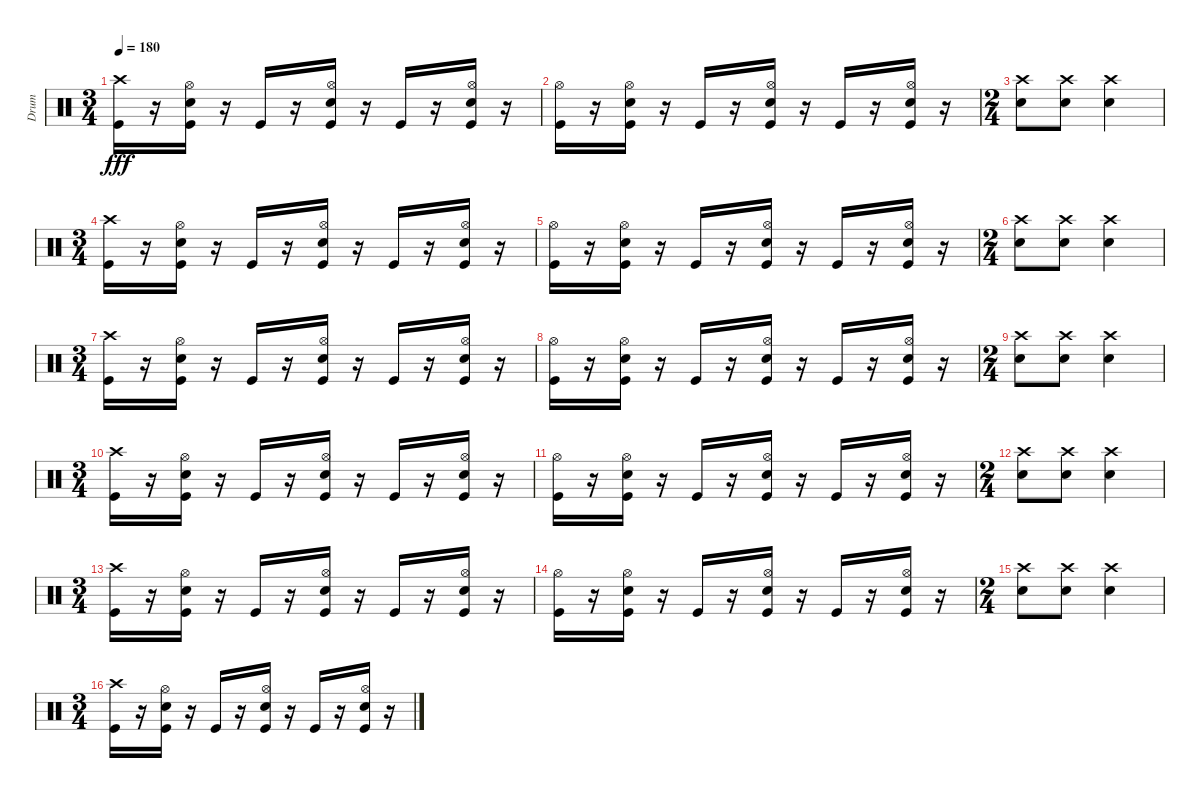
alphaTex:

\track ("Drum" "Drum") {instrument percussion}
\staff {score}
\articulation defaults
\ts (3 4)
\tempo 180
\clef neutral
\ks c
("Crash high (hit)" "Kick (hit)").16{dy fff} r.16 ("Hi-Hat (open)" "Snare (hit) 2" "Kick (hit)").16 r.16 "Kick (hit)".16 r.16 ("Hi-Hat (open)" "Snare (hit) 2" "Kick (hit)").16 r.16 "Kick (hit)".16 r.16 ("Hi-Hat (open)" "Snare (hit) 2" "Kick (hit)").16 r.16 |
("Hi-Hat (open)" "Kick (hit)").16 r.16 ("Hi-Hat (open)" "Snare (hit) 2" "Kick (hit)").16 r.16 "Kick (hit)".16 r.16 ("Hi-Hat (open)" "Snare (hit) 2" "Kick (hit)").16 r.16 "Kick (hit)".16 r.16 ("Hi-Hat (open)" "Snare (hit) 2" "Kick (hit)").16 r.16 |
\ts (2 4)
("Crash high (hit)" "Snare (hit) 2").8 ("Crash high (hit)" "Snare (hit) 2").8 ("Crash high (hit)" "Snare (hit) 2").4 |
\ts (3 4)
("Crash high (hit)" "Kick (hit)").16 r.16 ("Hi-Hat (open)" "Snare (hit) 2" "Kick (hit)").16 r.16 "Kick (hit)".16 r.16 ("Hi-Hat (open)" "Snare (hit) 2" "Kick (hit)").16 r.16 "Kick (hit)".16 r.16 ("Hi-Hat (open)" "Snare (hit) 2" "Kick (hit)").16 r.16 |
("Hi-Hat (open)" "Kick (hit)").16 r.16 ("Hi-Hat (open)" "Snare (hit) 2" "Kick (hit)").16 r.16 "Kick (hit)".16 r.16 ("Hi-Hat (open)" "Snare (hit) 2" "Kick (hit)").16 r.16 "Kick (hit)".16 r.16 ("Hi-Hat (open)" "Snare (hit) 2" "Kick (hit)").16 r.16 |
\ts (2 4)
("Crash high (hit)" "Snare (hit) 2").8 ("Crash high (hit)" "Snare (hit) 2").8 ("Crash high (hit)" "Snare (hit) 2").4 |
\ts (3 4)
("Crash high (hit)" "Kick (hit)").16 r.16 ("Hi-Hat (open)" "Snare (hit) 2" "Kick (hit)").16 r.16 "Kick (hit)".16 r.16 ("Hi-Hat (open)" "Snare (hit) 2" "Kick (hit)").16 r.16 "Kick (hit)".16 r.16 ("Hi-Hat (open)" "Snare (hit) 2" "Kick (hit)").16 r.16 |
("Hi-Hat (open)" "Kick (hit)").16 r.16 ("Hi-Hat (open)" "Snare (hit) 2" "Kick (hit)").16 r.16 "Kick (hit)".16 r.16 ("Hi-Hat (open)" "Snare (hit) 2" "Kick (hit)").16 r.16 "Kick (hit)".16 r.16 ("Hi-Hat (open)" "Snare (hit) 2" "Kick (hit)").16 r.16 |
\ts (2 4)
("Crash high (hit)" "Snare (hit) 2").8 ("Crash high (hit)" "Snare (hit) 2").8 ("Crash high (hit)" "Snare (hit) 2").4 |
\ts (3 4)
("Crash high (hit)" "Kick (hit)").16 r.16 ("Hi-Hat (open)" "Snare (hit) 2" "Kick (hit)").16 r.16 "Kick (hit)".16 r.16 ("Hi-Hat (open)" "Snare (hit) 2" "Kick (hit)").16 r.16 "Kick (hit)".16 r.16 ("Hi-Hat (open)" "Snare (hit) 2" "Kick (hit)").16 r.16 |
("Hi-Hat (open)" "Kick (hit)").16 r.16 ("Hi-Hat (open)" "Snare (hit) 2" "Kick (hit)").16 r.16 "Kick (hit)".16 r.16 ("Hi-Hat (open)" "Snare (hit) 2" "Kick (hit)").16 r.16 "Kick (hit)".16 r.16 ("Hi-Hat (open)" "Snare (hit) 2" "Kick (hit)").16 r.16 |
\ts (2 4)
("Crash high (hit)" "Snare (hit) 2").8 ("Crash high (hit)" "Snare (hit) 2").8 ("Crash high (hit)" "Snare (hit) 2").4 |
\ts (3 4)
("Crash high (hit)" "Kick (hit)").16 r.16 ("Hi-Hat (open)" "Snare (hit) 2" "Kick (hit)").16 r.16 "Kick (hit)".16 r.16 ("Hi-Hat (open)" "Snare (hit) 2" "Kick (hit)").16 r.16 "Kick (hit)".16 r.16 ("Hi-Hat (open)" "Snare (hit) 2" "Kick (hit)").16 r.16 |
("Hi-Hat (open)" "Kick (hit)").16 r.16 ("Hi-Hat (open)" "Snare (hit) 2" "Kick (hit)").16 r.16 "Kick (hit)".16 r.16 ("Hi-Hat (open)" "Snare (hit) 2" "Kick (hit)").16 r.16 "Kick (hit)".16 r.16 ("Hi-Hat (open)" "Snare (hit) 2" "Kick (hit)").16 r.16 |
\ts (2 4)
("Crash high (hit)" "Snare (hit) 2").8 ("Crash high (hit)" "Snare (hit) 2").8 ("Crash high (hit)" "Snare (hit) 2").4 |
\ts (3 4)
("Crash high (hit)" "Kick (hit)").16 r.16 ("Hi-Hat (open)" "Snare (hit) 2" "Kick (hit)").16 r.16 "Kick (hit)".16 r.16 ("Hi-Hat (open)" "Snare (hit) 2" "Kick (hit)").16 r.16 "Kick (hit)".16 r.16 ("Hi-Hat (open)" "Snare (hit) 2" "Kick (hit)").16 r.16
